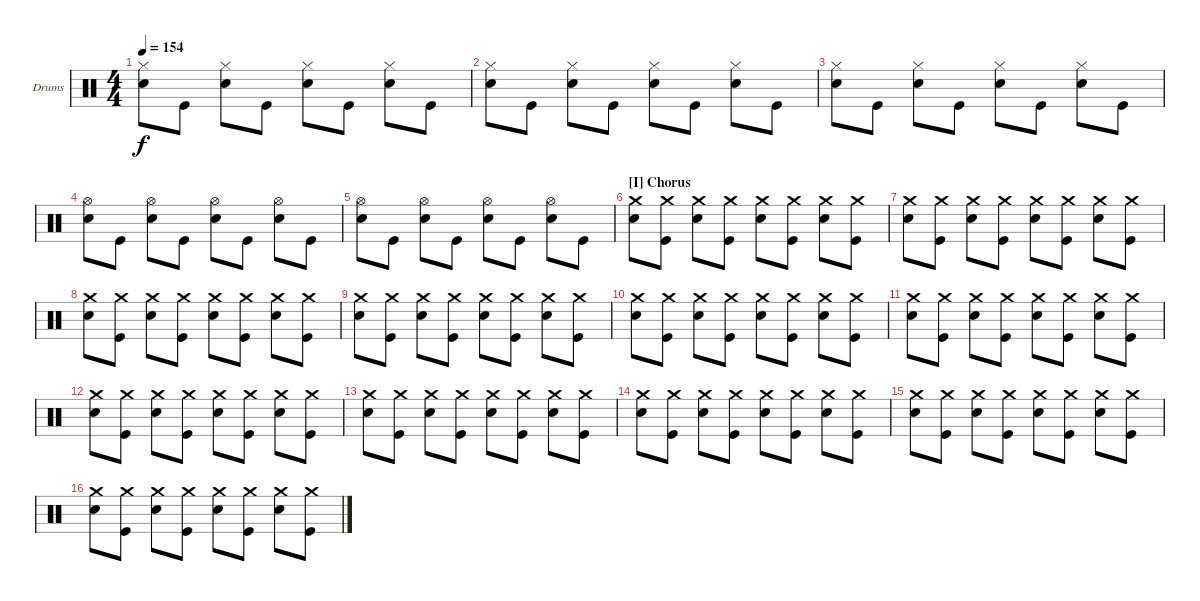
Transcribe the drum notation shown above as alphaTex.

\defaultSystemsLayout 4
\bracketExtendMode groupsimilarinstruments
\firstSystemTrackNameOrientation horizontal
\otherSystemsTrackNameOrientation horizontal
\track ("Drumkit" "Drums") {instrument percussion}
\staff {score}
\articulation defaults
\ts (4 4)
\tempo 154
\clef neutral
\scale
1.02648
\ks c
("Hi-Hat (closed)" "Snare (hit) 2").8{dy f} "Kick (hit)".8 ("Hi-Hat (closed)" "Snare (hit) 2").8 "Kick (hit)".8 ("Hi-Hat (closed)" "Snare (hit) 2").8 "Kick (hit)".8 ("Hi-Hat (closed)" "Snare (hit) 2").8 "Kick (hit)".8 |
\scale
0.973518 ("Hi-Hat (closed)" "Snare (hit) 2").8 "Kick (hit)".8 ("Hi-Hat (closed)" "Snare (hit) 2").8 "Kick (hit)".8 ("Hi-Hat (closed)" "Snare (hit) 2").8 "Kick (hit)".8 ("Hi-Hat (closed)" "Snare (hit) 2").8 "Kick (hit)".8 |
\scale
1.02648 ("Hi-Hat (closed)" "Snare (hit) 2").8 "Kick (hit)".8 ("Hi-Hat (closed)" "Snare (hit) 2").8 "Kick (hit)".8 ("Hi-Hat (closed)" "Snare (hit) 2").8 "Kick (hit)".8 ("Hi-Hat (closed)" "Snare (hit) 2").8 "Kick (hit)".8 |
\scale
0.973518 ("Hi-Hat (open)" "Snare (hit) 2").8 "Kick (hit)".8 ("Hi-Hat (open)" "Snare (hit) 2").8 "Kick (hit)".8 ("Hi-Hat (open)" "Snare (hit) 2").8 "Kick (hit)".8 ("Hi-Hat (open)" "Snare (hit) 2").8 "Kick (hit)".8 |
\scale
1.02648 ("Hi-Hat (open)" "Snare (hit) 2").8 "Kick (hit)".8 ("Hi-Hat (open)" "Snare (hit) 2").8 "Kick (hit)".8 ("Hi-Hat (open)" "Snare (hit) 2").8 "Kick (hit)".8 ("Hi-Hat (open)" "Snare (hit) 2").8 "Kick (hit)".8 |
\section ("I" "Chorus")
\scale
0.973518 ("Crash medium (hit)" "Snare (hit) 2").8 ("Crash medium (hit)" "Kick (hit)").8 ("Crash medium (hit)" "Snare (hit) 2").8 ("Crash medium (hit)" "Kick (hit)").8 ("Crash medium (hit)" "Snare (hit) 2").8 ("Crash medium (hit)" "Kick (hit)").8 ("Crash medium (hit)" "Snare (hit) 2").8 ("Crash medium (hit)" "Kick (hit)").8 |
\scale
1.02648 ("Crash medium (hit)" "Snare (hit) 2").8 ("Crash medium (hit)" "Kick (hit)").8 ("Crash medium (hit)" "Snare (hit) 2").8 ("Crash medium (hit)" "Kick (hit)").8 ("Crash medium (hit)" "Snare (hit) 2").8 ("Crash medium (hit)" "Kick (hit)").8 ("Crash medium (hit)" "Snare (hit) 2").8 ("Crash medium (hit)" "Kick (hit)").8 |
\scale
0.973518 ("Crash medium (hit)" "Snare (hit) 2").8 ("Crash medium (hit)" "Kick (hit)").8 ("Crash medium (hit)" "Snare (hit) 2").8 ("Crash medium (hit)" "Kick (hit)").8 ("Crash medium (hit)" "Snare (hit) 2").8 ("Crash medium (hit)" "Kick (hit)").8 ("Crash medium (hit)" "Snare (hit) 2").8 ("Crash medium (hit)" "Kick (hit)").8 |
\scale
1.02648 ("Crash medium (hit)" "Snare (hit) 2").8 ("Crash medium (hit)" "Kick (hit)").8 ("Crash medium (hit)" "Snare (hit) 2").8 ("Crash medium (hit)" "Kick (hit)").8 ("Crash medium (hit)" "Snare (hit) 2").8 ("Crash medium (hit)" "Kick (hit)").8 ("Crash medium (hit)" "Snare (hit) 2").8 ("Crash medium (hit)" "Kick (hit)").8 |
\scale
0.973518 ("Crash medium (hit)" "Snare (hit) 2").8 ("Crash medium (hit)" "Kick (hit)").8 ("Crash medium (hit)" "Snare (hit) 2").8 ("Crash medium (hit)" "Kick (hit)").8 ("Crash medium (hit)" "Snare (hit) 2").8 ("Crash medium (hit)" "Kick (hit)").8 ("Crash medium (hit)" "Snare (hit) 2").8 ("Crash medium (hit)" "Kick (hit)").8 |
\scale
1.02648 ("Crash medium (hit)" "Snare (hit) 2").8 ("Crash medium (hit)" "Kick (hit)").8 ("Crash medium (hit)" "Snare (hit) 2").8 ("Crash medium (hit)" "Kick (hit)").8 ("Crash medium (hit)" "Snare (hit) 2").8 ("Crash medium (hit)" "Kick (hit)").8 ("Crash medium (hit)" "Snare (hit) 2").8 ("Crash medium (hit)" "Kick (hit)").8 |
\scale
0.973518 ("Crash medium (hit)" "Snare (hit) 2").8 ("Crash medium (hit)" "Kick (hit)").8 ("Crash medium (hit)" "Snare (hit) 2").8 ("Crash medium (hit)" "Kick (hit)").8 ("Crash medium (hit)" "Snare (hit) 2").8 ("Crash medium (hit)" "Kick (hit)").8 ("Crash medium (hit)" "Snare (hit) 2").8 ("Crash medium (hit)" "Kick (hit)").8 |
\scale
1.02648 ("Crash medium (hit)" "Snare (hit) 2").8 ("Crash medium (hit)" "Kick (hit)").8 ("Crash medium (hit)" "Snare (hit) 2").8 ("Crash medium (hit)" "Kick (hit)").8 ("Crash medium (hit)" "Snare (hit) 2").8 ("Crash medium (hit)" "Kick (hit)").8 ("Crash medium (hit)" "Snare (hit) 2").8 ("Crash medium (hit)" "Kick (hit)").8 |
\scale
0.973518 ("Crash medium (hit)" "Snare (hit) 2").8 ("Crash medium (hit)" "Kick (hit)").8 ("Crash medium (hit)" "Snare (hit) 2").8 ("Crash medium (hit)" "Kick (hit)").8 ("Crash medium (hit)" "Snare (hit) 2").8 ("Crash medium (hit)" "Kick (hit)").8 ("Crash medium (hit)" "Snare (hit) 2").8 ("Crash medium (hit)" "Kick (hit)").8 |
\scale
1.02648 ("Crash medium (hit)" "Snare (hit) 2").8 ("Crash medium (hit)" "Kick (hit)").8 ("Crash medium (hit)" "Snare (hit) 2").8 ("Crash medium (hit)" "Kick (hit)").8 ("Crash medium (hit)" "Snare (hit) 2").8 ("Crash medium (hit)" "Kick (hit)").8 ("Crash medium (hit)" "Snare (hit) 2").8 ("Crash medium (hit)" "Kick (hit)").8 |
\scale
0.973518 ("Crash medium (hit)" "Snare (hit) 2").8 ("Crash medium (hit)" "Kick (hit)").8 ("Crash medium (hit)" "Snare (hit) 2").8 ("Crash medium (hit)" "Kick (hit)").8 ("Crash medium (hit)" "Snare (hit) 2").8 ("Crash medium (hit)" "Kick (hit)").8 ("Crash medium (hit)" "Snare (hit) 2").8 ("Crash medium (hit)" "Kick (hit)").8
